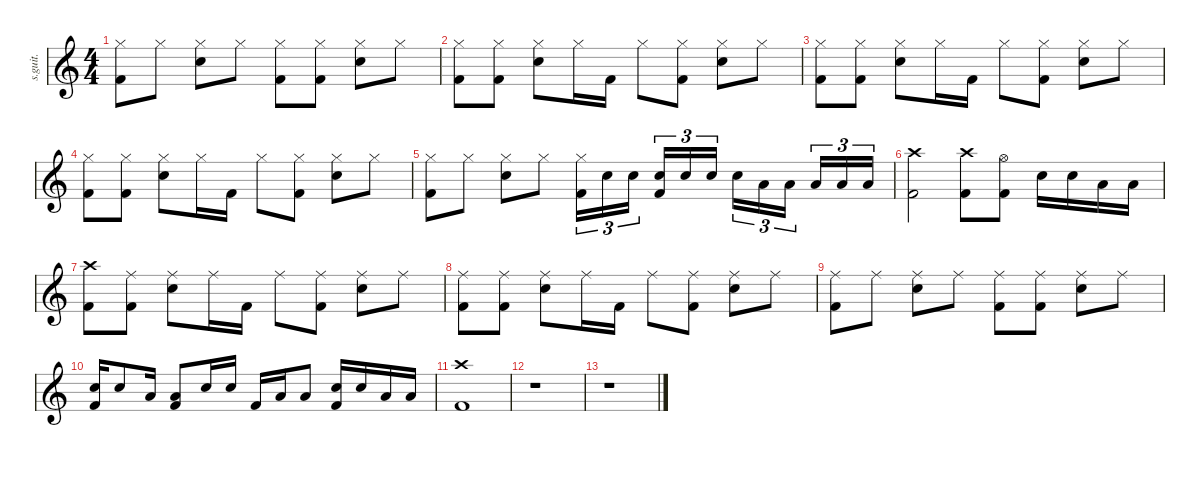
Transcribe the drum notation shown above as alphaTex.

\defaultSystemsLayout 4
\hideDynamics
\bracketExtendMode nobrackets
\track ("" "s.guit.") {instrument percussion}
\staff {score}
\articulation defaults
\ts (4 4)
\tempo (82 hide)
\clef g2
\ks c
("Hi-Hat (closed)" "Kick (hit) 2").8{dy f} "Hi-Hat (closed)".8 ("Hi-Hat (closed)" "Snare (hit) 2").8 "Hi-Hat (closed)".8 ("Hi-Hat (closed)" "Kick (hit) 2").8 ("Hi-Hat (closed)" "Kick (hit) 2").8 ("Hi-Hat (closed)" "Snare (hit) 2").8 "Hi-Hat (closed)".8 |
("Hi-Hat (closed)" "Kick (hit) 2").8 ("Hi-Hat (closed)" "Kick (hit) 2").8 ("Hi-Hat (closed)" "Snare (hit) 2").8 "Hi-Hat (closed)".16 "Kick (hit) 2".16 "Hi-Hat (closed)".8 ("Hi-Hat (closed)" "Kick (hit) 2").8 ("Hi-Hat (closed)" "Snare (hit) 2").8 "Hi-Hat (closed)".8 |
("Hi-Hat (closed)" "Kick (hit) 2").8 ("Hi-Hat (closed)" "Kick (hit) 2").8 ("Hi-Hat (closed)" "Snare (hit) 2").8 "Hi-Hat (closed)".16 "Kick (hit) 2".16 "Hi-Hat (closed)".8 ("Hi-Hat (closed)" "Kick (hit) 2").8 ("Hi-Hat (closed)" "Snare (hit) 2").8 "Hi-Hat (closed)".8 |
("Hi-Hat (closed)" "Kick (hit) 2").8 ("Hi-Hat (closed)" "Kick (hit) 2").8 ("Hi-Hat (closed)" "Snare (hit) 2").8 "Hi-Hat (closed)".16 "Kick (hit) 2".16 "Hi-Hat (closed)".8 ("Hi-Hat (closed)" "Kick (hit) 2").8 ("Hi-Hat (closed)" "Snare (hit) 2").8 "Hi-Hat (closed)".8 |
("Hi-Hat (closed)" "Kick (hit) 2").8 "Hi-Hat (closed)".8 ("Hi-Hat (closed)" "Snare (hit) 2").8 "Hi-Hat (closed)".8 ("Hi-Hat (closed)" "Kick (hit) 2").16{tu (3 2)} "Snare (hit) 2".16{tu (3 2)} "Snare (hit) 2".16{tu (3 2)} ("Snare (hit) 2" "Kick (hit) 2").16{tu (3 2)} "Snare (hit) 2".16{tu (3 2)} "Snare (hit) 2".16{tu (3 2)} "Snare (hit) 2".16{tu (3 2)} "Low Tom (hit)".16{tu (3 2)} "Low Tom (hit)".16{tu (3 2)} "Low Tom (hit)".16{tu (3 2)} "Low Tom (hit)".16{tu (3 2)} "Low Tom (hit)".16{tu (3 2)} |
("Crash high (hit)" "Kick (hit) 2").2 ("Crash high (hit)" "Kick (hit) 2").8 ("Hi-Hat (open)" "Kick (hit) 2").8 "Snare (hit) 2".16 "Snare (hit) 2".16 "Low Tom (hit)".16 "Low Tom (hit)".16 |
("Crash high (hit)" "Kick (hit) 2").8 ("Ride (middle)" "Kick (hit) 2").8 ("Ride (middle)" "Snare (hit) 2").8 "Ride (middle)".16 "Kick (hit) 2".16 "Ride (middle)".8 ("Ride (middle)" "Kick (hit) 2").8 ("Ride (middle)" "Snare (hit) 2").8 "Ride (middle)".8 |
("Ride (middle)" "Kick (hit) 2").8 ("Ride (middle)" "Kick (hit) 2").8 ("Ride (middle)" "Snare (hit) 2").8 "Ride (middle)".16 "Kick (hit) 2".16 "Ride (middle)".8 ("Ride (middle)" "Kick (hit) 2").8 ("Ride (middle)" "Snare (hit) 2").8 "Ride (middle)".8 |
("Ride (middle)" "Kick (hit) 2").8 "Ride (middle)".8 ("Ride (middle)" "Snare (hit) 2").8 "Ride (middle)".8 ("Ride (middle)" "Kick (hit) 2").8 ("Ride (middle)" "Kick (hit) 2").8 ("Ride (middle)" "Snare (hit) 2").8 "Ride (middle)".8 |
("Snare (hit) 2" "Kick (hit) 2").16 "Snare (hit) 2".8 "Low Tom (hit)".16 ("Low Tom (hit)" "Kick (hit) 2").8 "Snare (hit) 2".16 "Snare (hit) 2".16 "Kick (hit) 2".16 "Low Tom (hit)".16 "Low Tom (hit)".8 ("Snare (hit) 2" "Kick (hit) 2").16 "Snare (hit) 2".16 "Low Tom (hit)".16 "Low Tom (hit)".16 |
("Crash high (hit)" "Kick (hit) 2").1 |
r.1 |
r.1
